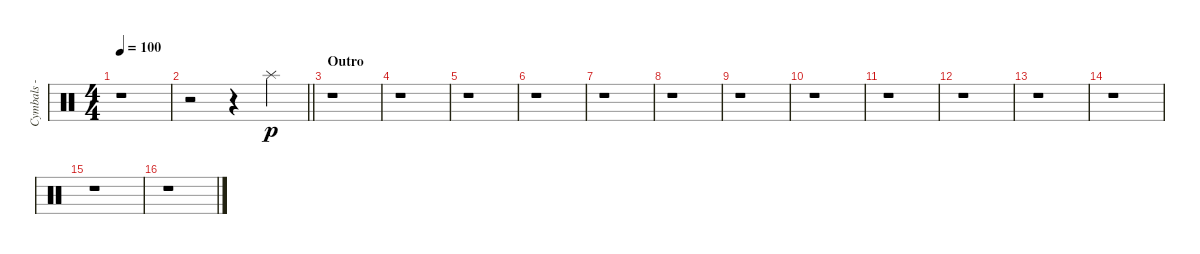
\track ("Cymbals - splash" "Cymbals - ") {instrument percussion}
\staff {score}
\articulation defaults
\ts (4 4)
\tempo 100
\clef neutral
\ks c
r.1{dy p} |
\barLineRight lightlight
r.2 r.4 "Splash (hit)".4 |
\section ("" "Outro")
r.1 |
r.1 |
r.1 |
r.1 |
r.1 |
r.1 |
r.1 |
r.1 |
r.1 |
r.1 |
r.1 |
r.1 |
r.1 |
r.1
